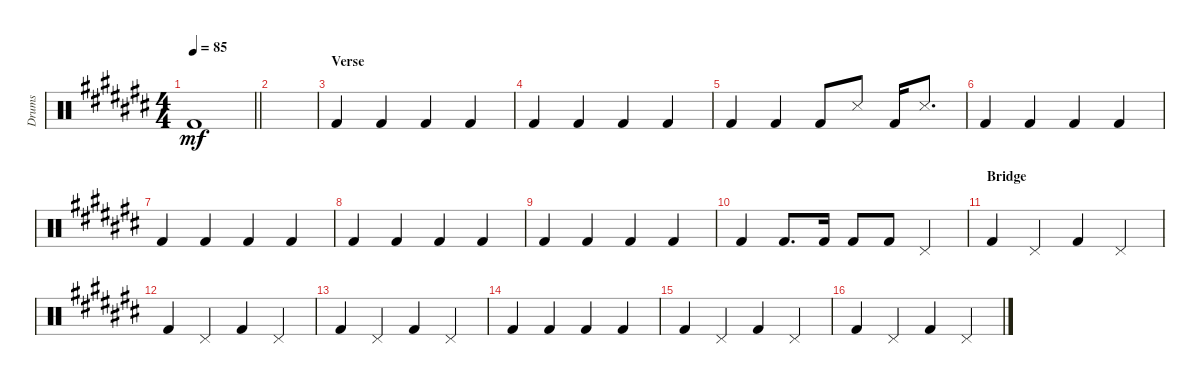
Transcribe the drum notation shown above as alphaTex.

\bracketExtendMode groupsimilarinstruments
\otherSystemsTrackNameOrientation horizontal
\track ("Drumkit" "Drums") {instrument percussion}
\staff {score}
\articulation defaults
\ts (4 4)
\scale
0.98588
\tempo 85
\accidentals auto
\clef neutral
\ottava regular
\simile none
\scale
0.333333
\barLineRight lightlight
\ks c# "Kick (hit) 2"{acc forcenatural}.1{dy mf beam Up}
|
\scale
1.07302
\scale
0.333333 |
\section ("" "Verse")
\scale
0.963488
\scale
0.333333 "Kick (hit) 2"{acc forcenatural}.4{beam Up} "Kick (hit) 2"{acc forcenatural}.4{beam Up} "Kick (hit) 2"{acc forcenatural}.4{beam Up} "Kick (hit) 2"{acc forcenatural}.4{beam Up} |
\scale
0.963488
\scale
0.333333 "Kick (hit) 2"{acc forcenatural}.4{beam Up} "Kick (hit) 2"{acc forcenatural}.4{beam Up} "Kick (hit) 2"{acc forcenatural}.4{beam Up} "Kick (hit) 2"{acc forcenatural}.4{beam Up} |
\scale
1.06367
\scale
0.333333 "Kick (hit) 2"{acc forcenatural}.4{beam Up} "Kick (hit) 2"{acc forcenatural}.4{beam Up} "Kick (hit) 2"{acc forcenatural}.8{beam Up} "Snare (side stick) 3"{acc forcenatural}.8{beam Up} "Kick (hit) 2"{acc forcenatural}.16{beam Up} "Snare (side stick) 3"{acc forcenatural}.8{d beam Up} |
\scale
0.968167
\scale
0.333333 "Kick (hit) 2"{acc forcenatural}.4{beam Up} "Kick (hit) 2"{acc forcenatural}.4{beam Up} "Kick (hit) 2"{acc forcenatural}.4{beam Up} "Kick (hit) 2"{acc forcenatural}.4{beam Up} |
\scale
0.968167
\scale
0.333333 "Kick (hit) 2"{acc forcenatural}.4{beam Up} "Kick (hit) 2"{acc forcenatural}.4{beam Up} "Kick (hit) 2"{acc forcenatural}.4{beam Up} "Kick (hit) 2"{acc forcenatural}.4{beam Up} |
\scale
1.05899
\scale
0.333333 "Kick (hit) 2"{acc forcenatural}.4{beam Up} "Kick (hit) 2"{acc forcenatural}.4{beam Up} "Kick (hit) 2"{acc forcenatural}.4{beam Up} "Kick (hit) 2"{acc forcenatural}.4{beam Up} |
\scale
0.963488
\scale
0.333333 "Kick (hit) 2"{acc forcenatural}.4{beam Up} "Kick (hit) 2"{acc forcenatural}.4{beam Up} "Kick (hit) 2"{acc forcenatural}.4{beam Up} "Kick (hit) 2"{acc forcenatural}.4{beam Up} |
\scale
0.977525
\scale
0.333333 "Kick (hit) 2"{acc forcenatural}.4{beam Up} "Kick (hit) 2"{acc forcenatural}.8{d beam Up} "Kick (hit) 2"{acc forcenatural}.16{beam Up} "Kick (hit) 2"{acc forcenatural}.8{beam Up} "Kick (hit) 2"{acc forcenatural}.8{beam Up} "Pedal Hi-Hat (hit)"{acc forcenatural}.4{beam Up} |
\section ("" "Bridge")
\scale
1.07202
\scale
0.333333 "Kick (hit) 2"{acc forcenatural}.4{beam Up} "Pedal Hi-Hat (hit)"{acc forcenatural}.4{beam Up} "Kick (hit) 2"{acc forcenatural}.4{beam Up} "Pedal Hi-Hat (hit)"{acc forcenatural}.4{beam Up} |
\scale
0.951457
\scale
0.333333 "Kick (hit) 2"{acc forcenatural}.4{beam Up} "Pedal Hi-Hat (hit)"{acc forcenatural}.4{beam Up} "Kick (hit) 2"{acc forcenatural}.4{beam Up} "Pedal Hi-Hat (hit)"{acc forcenatural}.4{beam Up} |
\scale
0.976522
\scale
0.333333 "Kick (hit) 2"{acc forcenatural}.4{beam Up} "Pedal Hi-Hat (hit)"{acc forcenatural}.4{beam Up} "Kick (hit) 2"{acc forcenatural}.4{beam Up} "Pedal Hi-Hat (hit)"{acc forcenatural}.4{beam Up} |
\scale
1.07202
\scale
0.333333 "Kick (hit) 2"{acc forcenatural}.4{beam Up} "Kick (hit) 2"{acc forcenatural}.4{beam Up} "Kick (hit) 2"{acc forcenatural}.4{beam Up} "Kick (hit) 2"{acc forcenatural}.4{beam Up} |
\scale
0.976522 "Kick (hit) 2"{acc forcenatural}.4{beam Up} "Pedal Hi-Hat (hit)"{acc forcenatural}.4{beam Up} "Kick (hit) 2"{acc forcenatural}.4{beam Up} "Pedal Hi-Hat (hit)"{acc forcenatural}.4{beam Up} |
\scale
0.951457 "Kick (hit) 2"{acc forcenatural}.4{beam Up} "Pedal Hi-Hat (hit)"{acc forcenatural}.4{beam Up} "Kick (hit) 2"{acc forcenatural}.4{beam Up} "Pedal Hi-Hat (hit)"{acc forcenatural}.4{beam Up}
